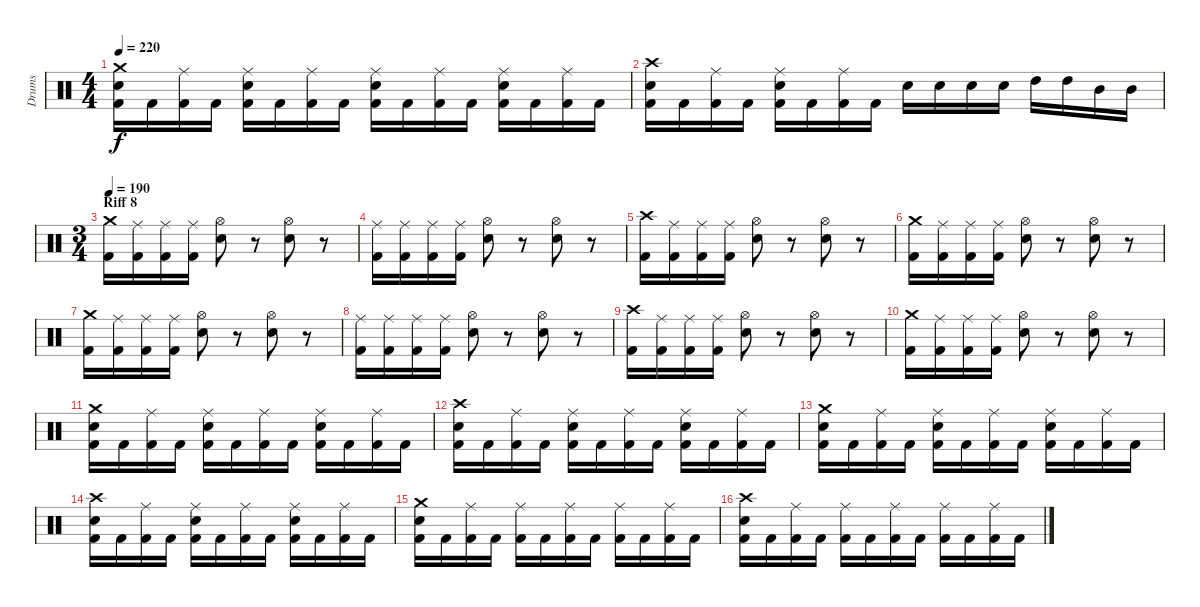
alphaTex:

\track ("Drums" "Drums") {instrument percussion}
\staff {score}
\articulation defaults
\ts (4 4)
\tempo 220
\clef neutral
\ks c
("Crash medium (hit)" "Electric Snare (hit)" "Kick (hit) 2").16{dy f} "Kick (hit) 2".16 ("Ride (middle)" "Kick (hit) 2").16 "Kick (hit) 2".16 ("Ride (middle)" "Electric Snare (hit)" "Kick (hit) 2").16 "Kick (hit) 2".16 ("Ride (middle)" "Kick (hit) 2").16 "Kick (hit) 2".16 ("Ride (middle)" "Electric Snare (hit)" "Kick (hit) 2").16 "Kick (hit) 2".16 ("Ride (middle)" "Kick (hit) 2").16 "Kick (hit) 2".16 ("Ride (middle)" "Electric Snare (hit)" "Kick (hit) 2").16 "Kick (hit) 2".16 ("Ride (middle)" "Kick (hit) 2").16 "Kick (hit) 2".16 |
("Crash high (hit)" "Electric Snare (hit)" "Kick (hit) 2").16 "Kick (hit) 2".16 ("Ride (middle)" "Kick (hit) 2").16 "Kick (hit) 2".16 ("Ride (middle)" "Electric Snare (hit)" "Kick (hit) 2").16 "Kick (hit) 2".16 ("Ride (middle)" "Kick (hit) 2").16 "Kick (hit) 2".16 "Electric Snare (hit)".16 "Electric Snare (hit)".16 "Electric Snare (hit)".16 "Electric Snare (hit)".16 "High Tom (hit)".16 "High Tom (hit)".16 "Mid Tom (hit)".16 "Mid Tom (hit)".16 |
\ts (3 4)
\section ("" "Riff 8")
\tempo 190
("Crash medium (hit)" "Kick (hit) 2").16 ("Ride (middle)" "Kick (hit) 2").16 ("Ride (middle)" "Kick (hit) 2").16 ("Ride (middle)" "Kick (hit) 2").16 ("Hi-Hat (open)" "Electric Snare (hit)").8 r.8 ("Hi-Hat (open)" "Electric Snare (hit)").8 r.8 |
("Ride (middle)" "Kick (hit) 2").16 ("Ride (middle)" "Kick (hit) 2").16 ("Ride (middle)" "Kick (hit) 2").16 ("Ride (middle)" "Kick (hit) 2").16 ("Hi-Hat (open)" "Electric Snare (hit)").8 r.8 ("Hi-Hat (open)" "Electric Snare (hit)").8 r.8 |
("Crash high (hit)" "Kick (hit) 2").16 ("Ride (middle)" "Kick (hit) 2").16 ("Ride (middle)" "Kick (hit) 2").16 ("Ride (middle)" "Kick (hit) 2").16 ("Hi-Hat (open)" "Electric Snare (hit)").8 r.8 ("Hi-Hat (open)" "Electric Snare (hit)").8 r.8 |
("Crash medium (hit)" "Kick (hit) 2").16 ("Ride (middle)" "Kick (hit) 2").16 ("Ride (middle)" "Kick (hit) 2").16 ("Ride (middle)" "Kick (hit) 2").16 ("Hi-Hat (open)" "Electric Snare (hit)").8 r.8 ("Hi-Hat (open)" "Electric Snare (hit)").8 r.8 |
("Crash medium (hit)" "Kick (hit) 2").16 ("Ride (middle)" "Kick (hit) 2").16 ("Ride (middle)" "Kick (hit) 2").16 ("Ride (middle)" "Kick (hit) 2").16 ("Hi-Hat (open)" "Electric Snare (hit)").8 r.8 ("Hi-Hat (open)" "Electric Snare (hit)").8 r.8 |
("Ride (middle)" "Kick (hit) 2").16 ("Ride (middle)" "Kick (hit) 2").16 ("Ride (middle)" "Kick (hit) 2").16 ("Ride (middle)" "Kick (hit) 2").16 ("Hi-Hat (open)" "Electric Snare (hit)").8 r.8 ("Hi-Hat (open)" "Electric Snare (hit)").8 r.8 |
("Crash high (hit)" "Kick (hit) 2").16 ("Ride (middle)" "Kick (hit) 2").16 ("Ride (middle)" "Kick (hit) 2").16 ("Ride (middle)" "Kick (hit) 2").16 ("Hi-Hat (open)" "Electric Snare (hit)").8 r.8 ("Hi-Hat (open)" "Electric Snare (hit)").8 r.8 |
("Crash medium (hit)" "Kick (hit) 2").16 ("Ride (middle)" "Kick (hit) 2").16 ("Ride (middle)" "Kick (hit) 2").16 ("Ride (middle)" "Kick (hit) 2").16 ("Hi-Hat (open)" "Electric Snare (hit)").8 r.8 ("Hi-Hat (open)" "Electric Snare (hit)").8 r.8 |
("Crash medium (hit)" "Electric Snare (hit)" "Kick (hit) 2").16 "Kick (hit) 2".16 ("Ride (middle)" "Kick (hit) 2").16 "Kick (hit) 2".16 ("Ride (middle)" "Electric Snare (hit)" "Kick (hit) 2").16 "Kick (hit) 2".16 ("Ride (middle)" "Kick (hit) 2").16 "Kick (hit) 2".16 ("Ride (middle)" "Electric Snare (hit)" "Kick (hit) 2").16 "Kick (hit) 2".16 ("Ride (middle)" "Kick (hit) 2").16 "Kick (hit) 2".16 |
("Crash high (hit)" "Electric Snare (hit)" "Kick (hit) 2").16 "Kick (hit) 2".16 ("Ride (middle)" "Kick (hit) 2").16 "Kick (hit) 2".16 ("Ride (middle)" "Electric Snare (hit)" "Kick (hit) 2").16 "Kick (hit) 2".16 ("Ride (middle)" "Kick (hit) 2").16 "Kick (hit) 2".16 ("Ride (middle)" "Electric Snare (hit)" "Kick (hit) 2").16 "Kick (hit) 2".16 ("Ride (middle)" "Kick (hit) 2").16 "Kick (hit) 2".16 |
("Crash medium (hit)" "Electric Snare (hit)" "Kick (hit) 2").16 "Kick (hit) 2".16 ("Ride (middle)" "Kick (hit) 2").16 "Kick (hit) 2".16 ("Ride (middle)" "Electric Snare (hit)" "Kick (hit) 2").16 "Kick (hit) 2".16 ("Ride (middle)" "Kick (hit) 2").16 "Kick (hit) 2".16 ("Ride (middle)" "Electric Snare (hit)" "Kick (hit) 2").16 "Kick (hit) 2".16 ("Ride (middle)" "Kick (hit) 2").16 "Kick (hit) 2".16 |
("Crash high (hit)" "Electric Snare (hit)" "Kick (hit) 2").16 "Kick (hit) 2".16 ("Ride (middle)" "Kick (hit) 2").16 "Kick (hit) 2".16 ("Ride (middle)" "Electric Snare (hit)" "Kick (hit) 2").16 "Kick (hit) 2".16 ("Ride (middle)" "Kick (hit) 2").16 "Kick (hit) 2".16 ("Ride (middle)" "Electric Snare (hit)" "Kick (hit) 2").16 "Kick (hit) 2".16 ("Ride (middle)" "Kick (hit) 2").16 "Kick (hit) 2".16 |
("Crash medium (hit)" "Electric Snare (hit)" "Kick (hit) 2").16 "Kick (hit) 2".16 ("Ride (middle)" "Kick (hit) 2").16 "Kick (hit) 2".16 ("Ride (middle)" "Kick (hit) 2").16 "Kick (hit) 2".16 ("Ride (middle)" "Kick (hit) 2").16 "Kick (hit) 2".16 ("Ride (middle)" "Kick (hit) 2").16 "Kick (hit) 2".16 ("Ride (middle)" "Kick (hit) 2").16 "Kick (hit) 2".16 |
("Crash high (hit)" "Electric Snare (hit)" "Kick (hit) 2").16 "Kick (hit) 2".16 ("Ride (middle)" "Kick (hit) 2").16 "Kick (hit) 2".16 ("Ride (middle)" "Kick (hit) 2").16 "Kick (hit) 2".16 ("Ride (middle)" "Kick (hit) 2").16 "Kick (hit) 2".16 ("Ride (middle)" "Kick (hit) 2").16 "Kick (hit) 2".16 ("Ride (middle)" "Kick (hit) 2").16 "Kick (hit) 2".16
